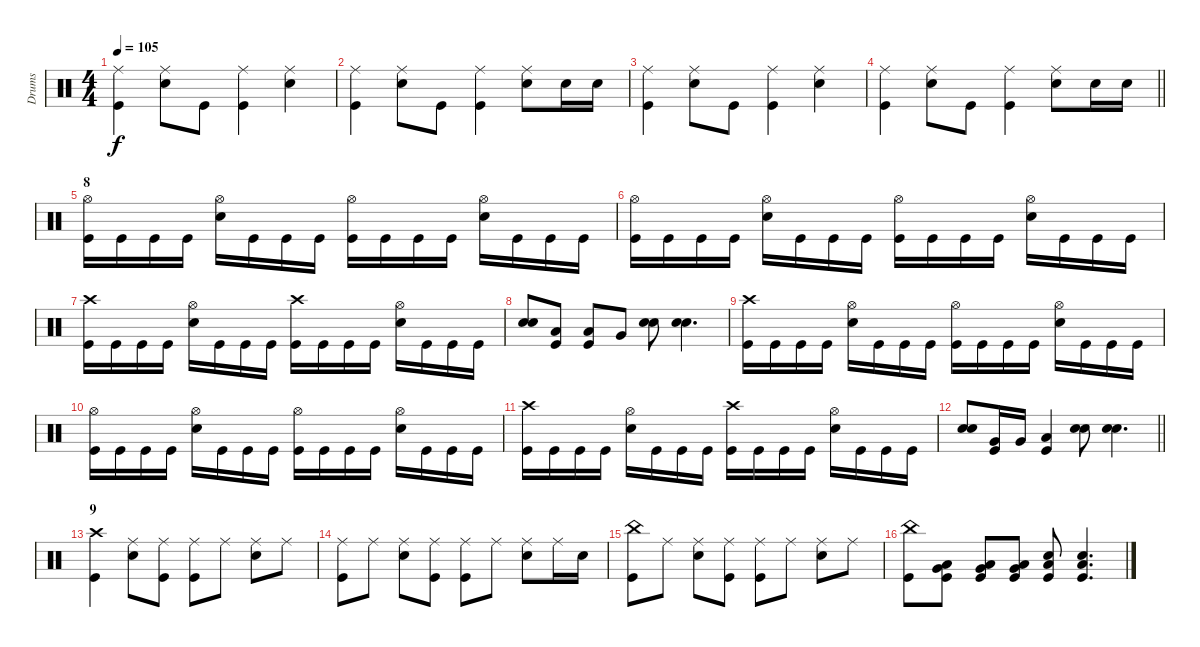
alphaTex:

\track ("Drums" "Drums") {instrument percussion}
\staff
\articulation defaults
\ts (4 4)
\tempo 105
\clef neutral
\ks c
("Ride (middle)" "Kick (hit)").4{dy f} ("Ride (middle)" "Electric Snare (hit)").8 "Kick (hit)".8 ("Ride (middle)" "Kick (hit)").4 ("Ride (middle)" "Electric Snare (hit)").4 |
("Ride (middle)" "Kick (hit)").4 ("Ride (middle)" "Electric Snare (hit)").8 "Kick (hit)".8 ("Ride (middle)" "Kick (hit)").4 ("Ride (middle)" "Electric Snare (hit)").8 "Electric Snare (hit)".16 "Electric Snare (hit)".16 |
("Ride (middle)" "Kick (hit)").4 ("Ride (middle)" "Electric Snare (hit)").8 "Kick (hit)".8 ("Ride (middle)" "Kick (hit)").4 ("Ride (middle)" "Electric Snare (hit)").4 |
\barLineRight lightlight
("Ride (middle)" "Kick (hit)").4 ("Ride (middle)" "Electric Snare (hit)").8 "Kick (hit)".8 ("Ride (middle)" "Kick (hit)").4 ("Ride (middle)" "Electric Snare (hit)").8 "Electric Snare (hit)".16 "Electric Snare (hit)".16 |
\section ("" "8")
("Hi-Hat (open)" "Kick (hit)").16 "Kick (hit)".16 "Kick (hit)".16 "Kick (hit)".16 ("Hi-Hat (open)" "Electric Snare (hit)").16 "Kick (hit)".16 "Kick (hit)".16 "Kick (hit)".16 ("Hi-Hat (open)" "Kick (hit)").16 "Kick (hit)".16 "Kick (hit)".16 "Kick (hit)".16 ("Hi-Hat (open)" "Electric Snare (hit)").16 "Kick (hit)".16 "Kick (hit)".16 "Kick (hit)".16 |
("Hi-Hat (open)" "Kick (hit)").16 "Kick (hit)".16 "Kick (hit)".16 "Kick (hit)".16 ("Hi-Hat (open)" "Electric Snare (hit)").16 "Kick (hit)".16 "Kick (hit)".16 "Kick (hit)".16 ("Hi-Hat (open)" "Kick (hit)").16 "Kick (hit)".16 "Kick (hit)".16 "Kick (hit)".16 ("Hi-Hat (open)" "Electric Snare (hit)").16 "Kick (hit)".16 "Kick (hit)".16 "Kick (hit)".16 |
("Crash high (hit)" "Kick (hit)").16 "Kick (hit)".16 "Kick (hit)".16 "Kick (hit)".16 ("Hi-Hat (open)" "Electric Snare (hit)").16 "Kick (hit)".16 "Kick (hit)".16 "Kick (hit)".16 ("Crash high (hit)" "Kick (hit)").16 "Kick (hit)".16 "Kick (hit)".16 "Kick (hit)".16 ("Hi-Hat (open)" "Electric Snare (hit)").16 "Kick (hit)".16 "Kick (hit)".16 "Kick (hit)".16 |
("Snare (hit) 2" "Electric Snare (hit)").8 ("Low Floor Tom (hit)" "Kick (hit)").8 ("Low Floor Tom (hit)" "Kick (hit)").8 "Very Low Tom (hit)".8 ("Snare (hit) 2" "Electric Snare (hit)").8 ("Snare (hit) 2" "Electric Snare (hit)").4{d} |
("Crash high (hit)" "Kick (hit)").16 "Kick (hit)".16 "Kick (hit)".16 "Kick (hit)".16 ("Hi-Hat (open)" "Electric Snare (hit)").16 "Kick (hit)".16 "Kick (hit)".16 "Kick (hit)".16 ("Hi-Hat (open)" "Kick (hit)").16 "Kick (hit)".16 "Kick (hit)".16 "Kick (hit)".16 ("Hi-Hat (open)" "Electric Snare (hit)").16 "Kick (hit)".16 "Kick (hit)".16 "Kick (hit)".16 |
("Hi-Hat (open)" "Kick (hit)").16 "Kick (hit)".16 "Kick (hit)".16 "Kick (hit)".16 ("Hi-Hat (open)" "Electric Snare (hit)").16 "Kick (hit)".16 "Kick (hit)".16 "Kick (hit)".16 ("Hi-Hat (open)" "Kick (hit)").16 "Kick (hit)".16 "Kick (hit)".16 "Kick (hit)".16 ("Hi-Hat (open)" "Electric Snare (hit)").16 "Kick (hit)".16 "Kick (hit)".16 "Kick (hit)".16 |
("Crash high (hit)" "Kick (hit)").16 "Kick (hit)".16 "Kick (hit)".16 "Kick (hit)".16 ("Hi-Hat (open)" "Electric Snare (hit)").16 "Kick (hit)".16 "Kick (hit)".16 "Kick (hit)".16 ("Crash high (hit)" "Kick (hit)").16 "Kick (hit)".16 "Kick (hit)".16 "Kick (hit)".16 ("Hi-Hat (open)" "Electric Snare (hit)").16 "Kick (hit)".16 "Kick (hit)".16 "Kick (hit)".16 |
\barLineRight lightlight
("Snare (hit) 2" "Electric Snare (hit)").8 ("Very Low Tom (hit)" "Kick (hit)").16 "Very Low Tom (hit)".16 ("Low Floor Tom (hit)" "Kick (hit)").4 ("Snare (hit) 2" "Electric Snare (hit)").8 ("Snare (hit) 2" "Electric Snare (hit)").4{d} |
\section ("" "9")
("Crash high (hit)" "Kick (hit)").4 ("Ride (middle)" "Electric Snare (hit)").8 ("Ride (middle)" "Kick (hit)").8 ("Ride (middle)" "Kick (hit)").8 "Ride (middle)".8 ("Ride (middle)" "Electric Snare (hit)").8 "Ride (middle)".8 |
("Ride (middle)" "Kick (hit)").8 "Ride (middle)".8 ("Ride (middle)" "Electric Snare (hit)").8 ("Ride (middle)" "Kick (hit)").8 ("Ride (middle)" "Kick (hit)").8 "Ride (middle)".8 ("Ride (middle)" "Electric Snare (hit)").8 "Ride (middle)".16 "Electric Snare (hit)".16 |
("China (hit)" "Kick (hit)").8 "Ride (middle)".8 ("Ride (middle)" "Electric Snare (hit)").8 ("Ride (middle)" "Kick (hit)").8 ("Ride (middle)" "Kick (hit)").8 "Ride (middle)".8 ("Ride (middle)" "Electric Snare (hit)").8 "Ride (middle)".8 |
("China (hit)" "Kick (hit)").8 ("Very Low Tom (hit)" "Low Floor Tom (hit)" "Kick (hit)").8 ("Very Low Tom (hit)" "Low Floor Tom (hit)" "Kick (hit)").8 ("Very Low Tom (hit)" "Low Floor Tom (hit)" "Kick (hit)").8 ("Electric Snare (hit)" "Low Floor Tom (hit)" "Kick (hit)").8 ("Electric Snare (hit)" "Low Floor Tom (hit)" "Kick (hit)").4{d}
